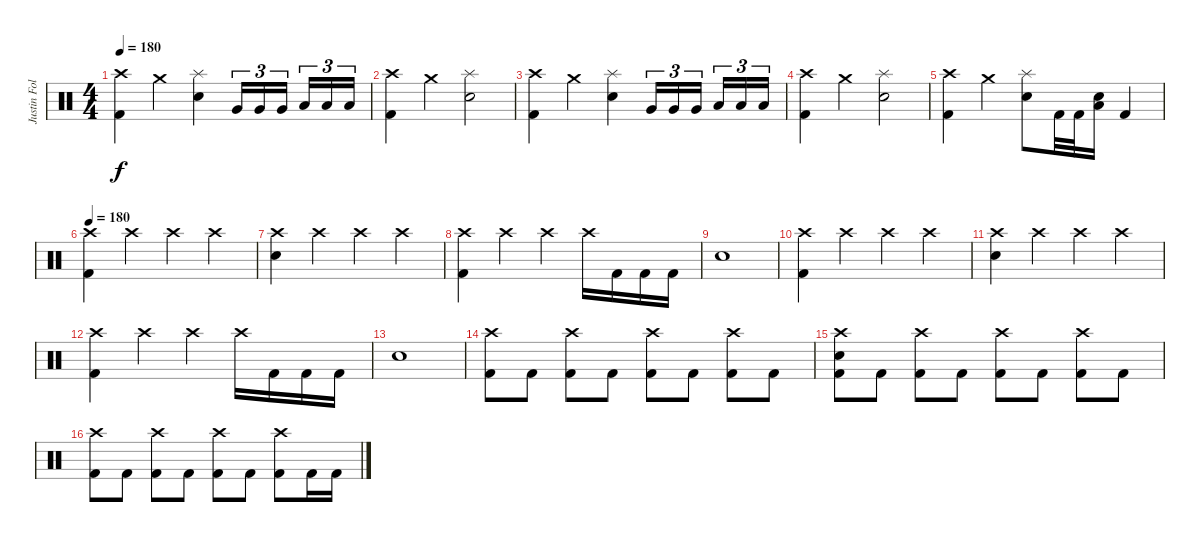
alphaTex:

\track ("Justin Foley" "Justin Fol") {instrument percussion}
\staff {score}
\articulation defaults
\ts (4 4)
\tempo 180
\clef neutral
\ks c
("Crash high (hit)" "Kick (hit) 2").4{dy f} "Crash medium (hit)".4 ("Splash (hit)" "Electric Snare (hit)").4 "Very Low Tom (hit)".16{tu (3 2)} "Very Low Tom (hit)".16{tu (3 2)} "Very Low Tom (hit)".16{tu (3 2) beam splitsecondary} "Low Floor Tom (hit)".16{tu (3 2)} "Low Floor Tom (hit)".16{tu (3 2)} "Low Floor Tom (hit)".16{tu (3 2)} |
("Crash high (hit)" "Kick (hit) 2").4 "Crash medium (hit)".4 ("Splash (hit)" "Electric Snare (hit)").2 |
("Crash high (hit)" "Kick (hit) 2").4 "Crash medium (hit)".4 ("Splash (hit)" "Electric Snare (hit)").4 "Very Low Tom (hit)".16{tu (3 2)} "Very Low Tom (hit)".16{tu (3 2)} "Very Low Tom (hit)".16{tu (3 2) beam splitsecondary} "Low Floor Tom (hit)".16{tu (3 2)} "Low Floor Tom (hit)".16{tu (3 2)} "Low Floor Tom (hit)".16{tu (3 2)} |
("Crash high (hit)" "Kick (hit) 2").4 "Crash medium (hit)".4 ("Splash (hit)" "Electric Snare (hit)").2 |
("Crash high (hit)" "Kick (hit) 2").4 "Crash medium (hit)".4 ("Splash (hit)" "Electric Snare (hit)").8 "Kick (hit) 2".32 "Kick (hit) 2".32 ("Electric Snare (hit)" "Low Floor Tom (hit)").16 "Kick (hit) 2".4 |
\tempo 180
("Crash high (hit)" "Kick (hit) 2").4 "Crash high (hit)".4 "Crash high (hit)".4 "Crash high (hit)".4 |
("Crash high (hit)" "Electric Snare (hit)").4 "Crash high (hit)".4 "Crash high (hit)".4 "Crash high (hit)".4 |
("Crash high (hit)" "Kick (hit) 2").4 "Crash high (hit)".4 "Crash high (hit)".4 "Crash high (hit)".16 "Kick (hit) 2".16 "Kick (hit) 2".16 "Kick (hit) 2".16 |
"Electric Snare (hit)".1 |
("Crash high (hit)" "Kick (hit) 2").4 "Crash high (hit)".4 "Crash high (hit)".4 "Crash high (hit)".4 |
("Crash high (hit)" "Electric Snare (hit)").4 "Crash high (hit)".4 "Crash high (hit)".4 "Crash high (hit)".4 |
("Crash high (hit)" "Kick (hit) 2").4 "Crash high (hit)".4 "Crash high (hit)".4 "Crash high (hit)".16 "Kick (hit) 2".16 "Kick (hit) 2".16 "Kick (hit) 2".16 |
"Electric Snare (hit)".1 |
("Crash high (hit)" "Kick (hit) 2").8 "Kick (hit) 2".8 ("Crash high (hit)" "Kick (hit) 2").8 "Kick (hit) 2".8 ("Crash high (hit)" "Kick (hit) 2").8 "Kick (hit) 2".8 ("Crash high (hit)" "Kick (hit) 2").8 "Kick (hit) 2".8 |
("Crash high (hit)" "Electric Snare (hit)" "Kick (hit) 2").8 "Kick (hit) 2".8 ("Crash high (hit)" "Kick (hit) 2").8 "Kick (hit) 2".8 ("Crash high (hit)" "Kick (hit) 2").8 "Kick (hit) 2".8 ("Crash high (hit)" "Kick (hit) 2").8 "Kick (hit) 2".8 |
("Crash high (hit)" "Kick (hit) 2").8 "Kick (hit) 2".8 ("Crash high (hit)" "Kick (hit) 2").8 "Kick (hit) 2".8 ("Crash high (hit)" "Kick (hit) 2").8 "Kick (hit) 2".8 ("Crash high (hit)" "Kick (hit) 2").8 "Kick (hit) 2".16 "Kick (hit) 2".16
